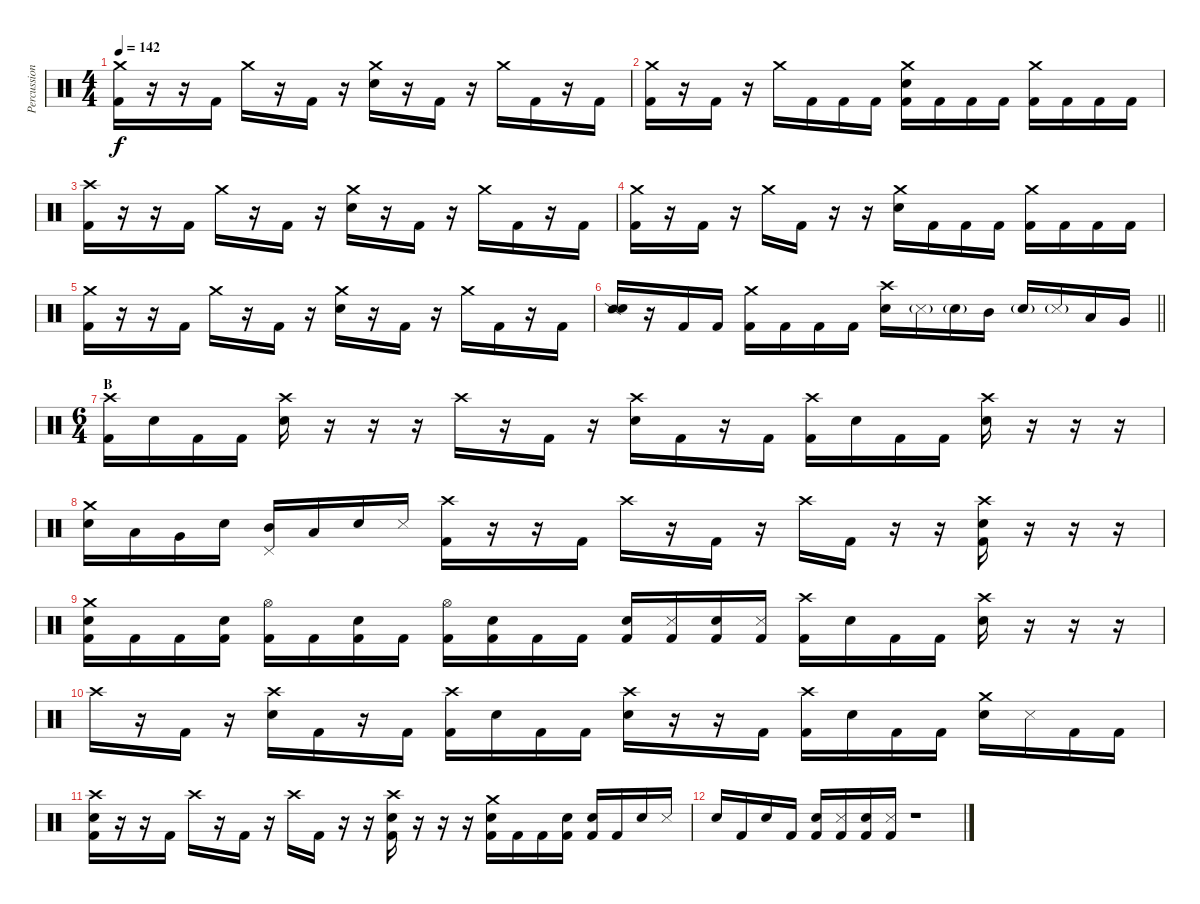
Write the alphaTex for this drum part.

\track ("Percussion" "Percussion") {instrument percussion}
\staff {score}
\articulation defaults
\ts (4 4)
\tempo 142
\clef neutral
\ks c
("Crash medium (hit)" "Kick (hit) 2").16{dy f} r.16 r.16 "Kick (hit) 2".16 "Crash medium (hit)".16 r.16 "Kick (hit) 2".16 r.16 ("Crash medium (hit)" "Snare (hit) 2").16 r.16 "Kick (hit) 2".16 r.16 "Crash medium (hit)".16 "Kick (hit) 2".16 r.16 "Kick (hit) 2".16 |
("Crash medium (hit)" "Kick (hit) 2").16 r.16 "Kick (hit) 2".16 r.16 "Crash medium (hit)".16 "Kick (hit) 2".16 "Kick (hit) 2".16 "Kick (hit) 2".16 ("Crash medium (hit)" "Snare (hit) 2" "Kick (hit) 2").16 "Kick (hit) 2".16 "Kick (hit) 2".16 "Kick (hit) 2".16 ("Crash medium (hit)" "Kick (hit) 2").16 "Kick (hit) 2".16 "Kick (hit) 2".16 "Kick (hit) 2".16 |
("Crash high (hit)" "Kick (hit) 2").16 r.16 r.16 "Kick (hit) 2".16 "Crash medium (hit)".16 r.16 "Kick (hit) 2".16 r.16 ("Crash medium (hit)" "Snare (hit) 2").16 r.16 "Kick (hit) 2".16 r.16 "Crash medium (hit)".16 "Kick (hit) 2".16 r.16 "Kick (hit) 2".16 |
("Crash medium (hit)" "Kick (hit) 2").16 r.16 "Kick (hit) 2".16 r.16 "Crash medium (hit)".16 "Kick (hit) 2".16 r.16 r.16 ("Crash medium (hit)" "Snare (hit) 2").16 "Kick (hit) 2".16 "Kick (hit) 2".16 "Kick (hit) 2".16 ("Crash medium (hit)" "Kick (hit) 2").16 "Kick (hit) 2".16 "Kick (hit) 2".16 "Kick (hit) 2".16 |
("Crash medium (hit)" "Kick (hit) 2").16 r.16 r.16 "Kick (hit) 2".16 "Crash medium (hit)".16 r.16 "Kick (hit) 2".16 r.16 ("Crash medium (hit)" "Snare (hit) 2").16 r.16 "Kick (hit) 2".16 r.16 "Crash medium (hit)".16 "Kick (hit) 2".16 r.16 "Kick (hit) 2".16 |
\barLineRight lightlight
("Snare (side stick) 2" "Snare (hit) 2").16 r.16 "Kick (hit) 2".16 "Kick (hit) 2".16 ("Crash medium (hit)" "Kick (hit) 2").16 "Kick (hit) 2".16 "Kick (hit) 2".16 "Kick (hit) 2".16 ("Crash high (hit)" "Snare (hit) 2").16 "Metronome (hit)"{g}.16 "Snare (hit) 2"{g}.16 "Mid Tom (hit)".16 "Snare (hit) 2"{g}.16 "Metronome (hit)"{g}.16 "Low Tom (hit)".16 "Very Low Tom (hit)".16 |
\ts (6 4)
\section ("" "B")
("Crash high (hit)" "Kick (hit) 2").16 "Snare (hit) 2".16 "Kick (hit) 2".16 "Kick (hit) 2".16 ("Crash high (hit)" "Snare (hit) 2").16 r.16 r.16 r.16 "Crash high (hit)".16 r.16 "Kick (hit) 2".16 r.16 ("Crash high (hit)" "Snare (hit) 2").16 "Kick (hit) 2".16 r.16 "Kick (hit) 2".16 ("Crash high (hit)" "Kick (hit) 2").16 "Snare (hit) 2".16 "Kick (hit) 2".16 "Kick (hit) 2".16 ("Crash high (hit)" "Snare (hit) 2").16 r.16 r.16 r.16 |
("Crash medium (hit)" "Snare (hit) 2").16 "Low Tom (hit)".16 "Very Low Tom (hit)".16 "Snare (hit) 2".16 ("Pedal Hi-Hat (hit)" "Mid Tom (hit)").16 "Low Tom (hit)".16 "Snare (hit) 2".16 "Metronome (hit)".16 ("Crash high (hit)" "Kick (hit) 2").16 r.16 r.16 "Kick (hit) 2".16 "Crash high (hit)".16 r.16 "Kick (hit) 2".16 r.16 "Crash high (hit)".16 "Kick (hit) 2".16 r.16 r.16 ("Crash high (hit)" "Snare (hit) 2" "Kick (hit) 2").16 r.16 r.16 r.16 |
("Crash medium (hit)" "Snare (hit) 2" "Kick (hit) 2").16 "Kick (hit) 2".16 "Kick (hit) 2".16 ("Snare (hit) 2" "Kick (hit) 2").16 ("Hi-Hat (open)" "Kick (hit) 2").16 "Kick (hit) 2".16 ("Snare (hit) 2" "Kick (hit) 2").16 "Kick (hit) 2".16 ("Hi-Hat (open)" "Kick (hit) 2").16 ("Snare (hit) 2" "Kick (hit) 2").16 "Kick (hit) 2".16 "Kick (hit) 2".16 ("Snare (hit) 2" "Kick (hit) 2").16 ("Metronome (hit)" "Kick (hit) 2").16 ("Snare (hit) 2" "Kick (hit) 2").16 ("Metronome (hit)" "Kick (hit) 2").16 ("Crash high (hit)" "Kick (hit) 2").16 "Snare (hit) 2".16 "Kick (hit) 2".16 "Kick (hit) 2".16 ("Crash high (hit)" "Snare (hit) 2").16 r.16 r.16 r.16 |
"Crash high (hit)".16 r.16 "Kick (hit) 2".16 r.16 ("Crash high (hit)" "Snare (hit) 2").16 "Kick (hit) 2".16 r.16 "Kick (hit) 2".16 ("Crash high (hit)" "Kick (hit) 2").16 "Snare (hit) 2".16 "Kick (hit) 2".16 "Kick (hit) 2".16 ("Crash high (hit)" "Snare (hit) 2").16 r.16 r.16 "Kick (hit) 2".16 ("Crash high (hit)" "Kick (hit) 2").16 "Snare (hit) 2".16 "Kick (hit) 2".16 "Kick (hit) 2".16 ("Crash medium (hit)" "Snare (hit) 2").16 "Metronome (hit)".16 "Kick (hit) 2".16 "Kick (hit) 2".16 |
("Crash high (hit)" "Snare (hit) 2" "Kick (hit) 2").16 r.16 r.16 "Kick (hit) 2".16 "Crash high (hit)".16 r.16 "Kick (hit) 2".16 r.16 "Crash high (hit)".16 "Kick (hit) 2".16 r.16 r.16 ("Crash high (hit)" "Snare (hit) 2" "Kick (hit) 2").16 r.16 r.16 r.16 ("Crash medium (hit)" "Snare (hit) 2" "Kick (hit) 2").16 "Kick (hit) 2".16 "Kick (hit) 2".16 ("Snare (hit) 2" "Kick (hit) 2").16 ("Snare (hit)" "Kick (hit) 2").16 "Kick (hit) 2".16 "Snare (hit) 2".16 "Metronome (hit)".16 |
"Snare (hit) 2".16 "Kick (hit) 2".16 "Snare (hit) 2".16 "Kick (hit) 2".16 ("Snare (hit) 2" "Kick (hit) 2").16 ("Metronome (hit)" "Kick (hit) 2").16 ("Snare (hit) 2" "Kick (hit) 2").16 ("Metronome (hit)" "Kick (hit) 2").16 r.1
